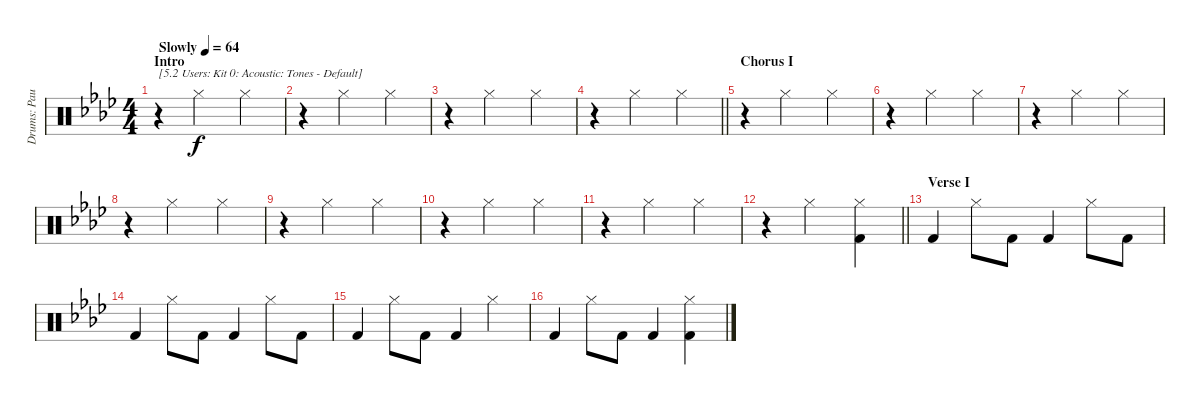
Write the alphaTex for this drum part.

\track ("Drums: Paulinho" "Drums: Pau") {instrument percussion}
\staff {score}
\articulation defaults
\ts (4 4)
\section ("" "Intro")
\tempo (64 "Slowly")
\clef neutral
\ks ab
r.4{txt "[5.2 Users: Kit 0: Acoustic: Tones - Default]" dy f} "Hi-Hat (closed)".2 "Hi-Hat (closed)".4 |
r.4 "Hi-Hat (closed)".2 "Hi-Hat (closed)".4 |
r.4 "Hi-Hat (closed)".2 "Hi-Hat (closed)".4 |
\barLineRight lightlight
r.4 "Hi-Hat (closed)".2 "Hi-Hat (closed)".4 |
\section ("" "Chorus I")
r.4 "Hi-Hat (closed)".2 "Hi-Hat (closed)".4 |
r.4 "Hi-Hat (closed)".2 "Hi-Hat (closed)".4 |
r.4 "Hi-Hat (closed)".2 "Hi-Hat (closed)".4 |
r.4 "Hi-Hat (closed)".2 "Hi-Hat (closed)".4 |
r.4 "Hi-Hat (closed)".2 "Hi-Hat (closed)".4 |
r.4 "Hi-Hat (closed)".2 "Hi-Hat (closed)".4 |
r.4 "Hi-Hat (closed)".2 "Hi-Hat (closed)".4 |
\barLineRight lightlight
r.4 "Hi-Hat (closed)".2 ("Hi-Hat (closed)" "Kick (hit) 2").4 |
\section ("" "Verse I")
"Kick (hit) 2".4 "Hi-Hat (closed)".8 "Kick (hit) 2".8 "Kick (hit) 2".4 "Hi-Hat (closed)".8 "Kick (hit) 2".8 |
"Kick (hit) 2".4 "Hi-Hat (closed)".8 "Kick (hit) 2".8 "Kick (hit) 2".4 "Hi-Hat (closed)".8 "Kick (hit) 2".8 |
"Kick (hit) 2".4 "Hi-Hat (closed)".8 "Kick (hit) 2".8 "Kick (hit) 2".4 "Hi-Hat (closed)".4 |
"Kick (hit) 2".4 "Hi-Hat (closed)".8 "Kick (hit) 2".8 "Kick (hit) 2".4 ("Hi-Hat (closed)" "Kick (hit) 2").4
